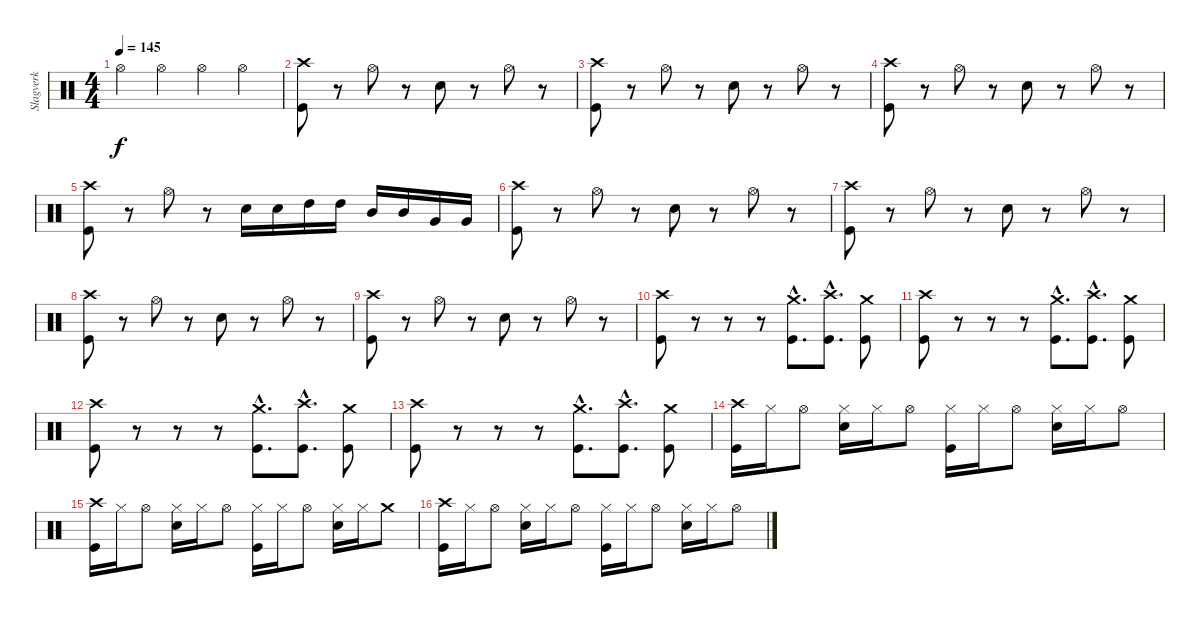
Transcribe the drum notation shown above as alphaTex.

\track ("Slagverk" "Slagverk") {instrument percussion}
\staff {score}
\articulation defaults
\ts (4 4)
\tempo 145
\clef neutral
\ks c "Hi-Hat (open)".4{dy f} "Hi-Hat (open)".4 "Hi-Hat (open)".4 "Hi-Hat (open)".4
|
("Crash high (hit)" "Kick (hit)").8 r.8 "Hi-Hat (open)".8 r.8 "Snare (hit) 2".8 r.8 "Hi-Hat (open)".8 r.8 |
("Crash high (hit)" "Kick (hit)").8 r.8 "Hi-Hat (open)".8 r.8 "Snare (hit) 2".8 r.8 "Hi-Hat (open)".8 r.8 |
("Crash high (hit)" "Kick (hit)").8 r.8 "Hi-Hat (open)".8 r.8 "Snare (hit) 2".8 r.8 "Hi-Hat (open)".8 r.8 |
("Crash high (hit)" "Kick (hit)").8 r.8 "Hi-Hat (open)".8 r.8 "Snare (hit) 2".16 "Snare (hit) 2".16 "High Tom (hit)".16 "High Tom (hit)".16 "Mid Tom (hit)".16 "Mid Tom (hit)".16 "Very Low Tom (hit)".16 "Very Low Tom (hit)".16 |
("Crash high (hit)" "Kick (hit)").8 r.8 "Hi-Hat (open)".8 r.8 "Snare (hit) 2".8 r.8 "Hi-Hat (open)".8 r.8 |
("Crash high (hit)" "Kick (hit)").8 r.8 "Hi-Hat (open)".8 r.8 "Snare (hit) 2".8 r.8 "Hi-Hat (open)".8 r.8 |
("Crash high (hit)" "Kick (hit)").8 r.8 "Hi-Hat (open)".8 r.8 "Snare (hit) 2".8 r.8 "Hi-Hat (open)".8 r.8 |
("Crash high (hit)" "Kick (hit)").8 r.8 "Hi-Hat (open)".8 r.8 "Snare (hit) 2".8 r.8 "Hi-Hat (open)".8 r.8 |
("Crash high (hit)" "Kick (hit)").8 r.8 r.8 r.8 ("Crash medium (hit)"{hac} "Kick (hit)"{hac}).8{d} ("Crash high (hit)"{hac} "Kick (hit)"{hac}).8{d} ("Crash medium (hit)" "Kick (hit)").8 |
("Crash high (hit)" "Kick (hit)").8 r.8 r.8 r.8 ("Crash medium (hit)"{hac} "Kick (hit)"{hac}).8{d} ("Crash high (hit)"{hac} "Kick (hit)"{hac}).8{d} ("Crash medium (hit)" "Kick (hit)").8 |
("Crash high (hit)" "Kick (hit)").8 r.8 r.8 r.8 ("Crash medium (hit)"{hac} "Kick (hit)"{hac}).8{d} ("Crash high (hit)"{hac} "Kick (hit)"{hac}).8{d} ("Crash medium (hit)" "Kick (hit)").8 |
("Crash high (hit)" "Kick (hit)").8 r.8 r.8 r.8 ("Crash medium (hit)"{hac} "Kick (hit)"{hac}).8{d} ("Crash high (hit)"{hac} "Kick (hit)"{hac}).8{d} ("Crash medium (hit)" "Kick (hit)").8 |
("Crash high (hit)" "Kick (hit)").16 "Hi-Hat (closed)".16 "Hi-Hat (open)".8 ("Hi-Hat (closed)" "Snare (hit) 2").16 "Hi-Hat (closed)".16 "Hi-Hat (open)".8 ("Hi-Hat (closed)" "Kick (hit)").16 "Hi-Hat (closed)".16 "Hi-Hat (open)".8 ("Hi-Hat (closed)" "Snare (hit) 2").16 "Hi-Hat (closed)".16 "Hi-Hat (open)".8 |
("Crash high (hit)" "Kick (hit)").16 "Hi-Hat (closed)".16 "Hi-Hat (open)".8 ("Hi-Hat (closed)" "Snare (hit) 2").16 "Hi-Hat (closed)".16 "Hi-Hat (open)".8 ("Hi-Hat (closed)" "Kick (hit)").16 "Hi-Hat (closed)".16 "Hi-Hat (open)".8 ("Hi-Hat (closed)" "Snare (hit) 2").16 "Hi-Hat (closed)".16 "Crash medium (hit)".8 |
("Crash high (hit)" "Kick (hit)").16 "Hi-Hat (closed)".16 "Hi-Hat (open)".8 ("Hi-Hat (closed)" "Snare (hit) 2").16 "Hi-Hat (closed)".16 "Hi-Hat (open)".8 ("Hi-Hat (closed)" "Kick (hit)").16 "Hi-Hat (closed)".16 "Hi-Hat (open)".8 ("Hi-Hat (closed)" "Snare (hit) 2").16 "Hi-Hat (closed)".16 "Hi-Hat (open)".8
